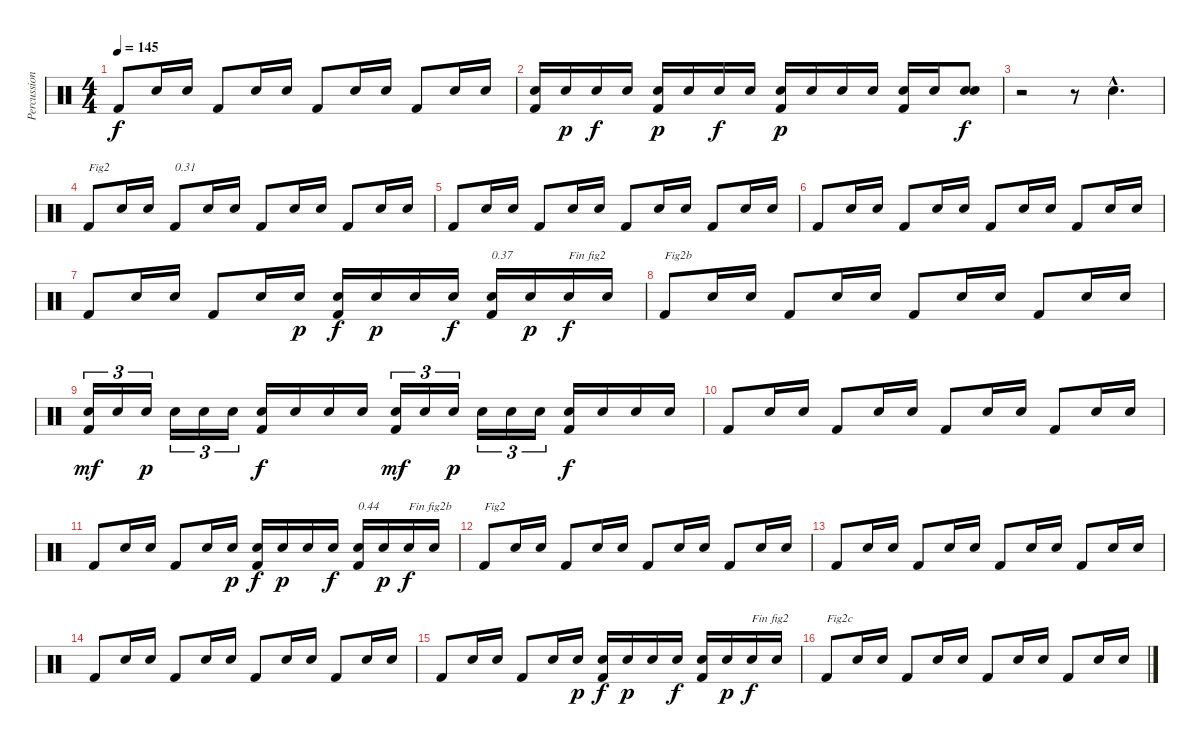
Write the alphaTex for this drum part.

\track ("Percussions" "Percussion") {instrument percussion}
\staff {score}
\articulation defaults
\ts (4 4)
\tempo 145
\clef neutral
\ks c "Kick (hit) 2".8{dy f} "Electric Snare (hit)".16 "Electric Snare (hit)".16 "Kick (hit) 2".8 "Electric Snare (hit)".16 "Electric Snare (hit)".16 "Kick (hit) 2".8 "Electric Snare (hit)".16 "Electric Snare (hit)".16 "Kick (hit) 2".8 "Electric Snare (hit)".16 "Electric Snare (hit)".16
|
("Kick (hit) 2" "Electric Snare (hit)").16 "Electric Snare (hit)".16{dy p} "Electric Snare (hit)".16{dy f} "Electric Snare (hit)".16 ("Kick (hit) 2" "Electric Snare (hit)").16{dy p} "Electric Snare (hit)".16 "Electric Snare (hit)".16{dy f} "Electric Snare (hit)".16 ("Kick (hit) 2" "Electric Snare (hit)").16{dy p} "Electric Snare (hit)".16 "Electric Snare (hit)".16 "Electric Snare (hit)".16 ("Kick (hit) 2" "Electric Snare (hit)").16 "Electric Snare (hit)".16 ("Electric Snare (hit)" "Electric Snare (hit)").8{dy f} |
r.2 r.8 "Electric Snare (hit)"{hac}.4{d} |
"Kick (hit) 2".8{txt "Fig2"} "Electric Snare (hit)".16 "Electric Snare (hit)".16 "Kick (hit) 2".8{txt "0.31"} "Electric Snare (hit)".16 "Electric Snare (hit)".16 "Kick (hit) 2".8 "Electric Snare (hit)".16 "Electric Snare (hit)".16 "Kick (hit) 2".8 "Electric Snare (hit)".16 "Electric Snare (hit)".16 |
"Kick (hit) 2".8 "Electric Snare (hit)".16 "Electric Snare (hit)".16 "Kick (hit) 2".8 "Electric Snare (hit)".16 "Electric Snare (hit)".16 "Kick (hit) 2".8 "Electric Snare (hit)".16 "Electric Snare (hit)".16 "Kick (hit) 2".8 "Electric Snare (hit)".16 "Electric Snare (hit)".16 |
"Kick (hit) 2".8 "Electric Snare (hit)".16 "Electric Snare (hit)".16 "Kick (hit) 2".8 "Electric Snare (hit)".16 "Electric Snare (hit)".16 "Kick (hit) 2".8 "Electric Snare (hit)".16 "Electric Snare (hit)".16 "Kick (hit) 2".8 "Electric Snare (hit)".16 "Electric Snare (hit)".16 |
"Kick (hit) 2".8 "Electric Snare (hit)".16 "Electric Snare (hit)".16 "Kick (hit) 2".8 "Electric Snare (hit)".16 "Electric Snare (hit)".16{dy p} ("Kick (hit) 2" "Electric Snare (hit)").16{dy f} "Electric Snare (hit)".16{dy p} "Electric Snare (hit)".16 "Electric Snare (hit)".16{dy f} ("Kick (hit) 2" "Electric Snare (hit)").16{txt "0.37"} "Electric Snare (hit)".16{dy p} "Electric Snare (hit)".16{txt "Fin fig2" dy f} "Electric Snare (hit)".16 |
"Kick (hit) 2".8{txt "Fig2b"} "Electric Snare (hit)".16 "Electric Snare (hit)".16 "Kick (hit) 2".8 "Electric Snare (hit)".16 "Electric Snare (hit)".16 "Kick (hit) 2".8 "Electric Snare (hit)".16 "Electric Snare (hit)".16 "Kick (hit) 2".8 "Electric Snare (hit)".16 "Electric Snare (hit)".16 |
("Kick (hit) 2" "Electric Snare (hit)").16{tu (3 2) dy mf} "Electric Snare (hit)".16{tu (3 2)} "Electric Snare (hit)".16{tu (3 2) dy p} "Electric Snare (hit)".16{tu (3 2)} "Electric Snare (hit)".16{tu (3 2)} "Electric Snare (hit)".16{tu (3 2)} ("Kick (hit) 2" "Electric Snare (hit)").16{dy f} "Electric Snare (hit)".16 "Electric Snare (hit)".16 "Electric Snare (hit)".16 ("Kick (hit) 2" "Electric Snare (hit)").16{tu (3 2) dy mf} "Electric Snare (hit)".16{tu (3 2)} "Electric Snare (hit)".16{tu (3 2) dy p} "Electric Snare (hit)".16{tu (3 2)} "Electric Snare (hit)".16{tu (3 2)} "Electric Snare (hit)".16{tu (3 2)} ("Kick (hit) 2" "Electric Snare (hit)").16{dy f} "Electric Snare (hit)".16 "Electric Snare (hit)".16 "Electric Snare (hit)".16 |
"Kick (hit) 2".8 "Electric Snare (hit)".16 "Electric Snare (hit)".16 "Kick (hit) 2".8 "Electric Snare (hit)".16 "Electric Snare (hit)".16 "Kick (hit) 2".8 "Electric Snare (hit)".16 "Electric Snare (hit)".16 "Kick (hit) 2".8 "Electric Snare (hit)".16 "Electric Snare (hit)".16 |
"Kick (hit) 2".8 "Electric Snare (hit)".16 "Electric Snare (hit)".16 "Kick (hit) 2".8 "Electric Snare (hit)".16 "Electric Snare (hit)".16{dy p} ("Kick (hit) 2" "Electric Snare (hit)").16{dy f} "Electric Snare (hit)".16{dy p} "Electric Snare (hit)".16 "Electric Snare (hit)".16{dy f} ("Kick (hit) 2" "Electric Snare (hit)").16{txt "0.44"} "Electric Snare (hit)".16{dy p} "Electric Snare (hit)".16{txt "Fin fig2b" dy f} "Electric Snare (hit)".16 |
"Kick (hit) 2".8{txt "Fig2"} "Electric Snare (hit)".16 "Electric Snare (hit)".16 "Kick (hit) 2".8 "Electric Snare (hit)".16 "Electric Snare (hit)".16 "Kick (hit) 2".8 "Electric Snare (hit)".16 "Electric Snare (hit)".16 "Kick (hit) 2".8 "Electric Snare (hit)".16 "Electric Snare (hit)".16 |
"Kick (hit) 2".8 "Electric Snare (hit)".16 "Electric Snare (hit)".16 "Kick (hit) 2".8 "Electric Snare (hit)".16 "Electric Snare (hit)".16 "Kick (hit) 2".8 "Electric Snare (hit)".16 "Electric Snare (hit)".16 "Kick (hit) 2".8 "Electric Snare (hit)".16 "Electric Snare (hit)".16 |
"Kick (hit) 2".8 "Electric Snare (hit)".16 "Electric Snare (hit)".16 "Kick (hit) 2".8 "Electric Snare (hit)".16 "Electric Snare (hit)".16 "Kick (hit) 2".8 "Electric Snare (hit)".16 "Electric Snare (hit)".16 "Kick (hit) 2".8 "Electric Snare (hit)".16 "Electric Snare (hit)".16 |
"Kick (hit) 2".8 "Electric Snare (hit)".16 "Electric Snare (hit)".16 "Kick (hit) 2".8 "Electric Snare (hit)".16 "Electric Snare (hit)".16{dy p} ("Kick (hit) 2" "Electric Snare (hit)").16{dy f} "Electric Snare (hit)".16{dy p} "Electric Snare (hit)".16 "Electric Snare (hit)".16{dy f} ("Kick (hit) 2" "Electric Snare (hit)").16 "Electric Snare (hit)".16{dy p} "Electric Snare (hit)".16{txt "Fin fig2" dy f} "Electric Snare (hit)".16 |
"Kick (hit) 2".8{txt "Fig2c"} "Electric Snare (hit)".16 "Electric Snare (hit)".16 "Kick (hit) 2".8 "Electric Snare (hit)".16 "Electric Snare (hit)".16 "Kick (hit) 2".8 "Electric Snare (hit)".16 "Electric Snare (hit)".16 "Kick (hit) 2".8 "Electric Snare (hit)".16 "Electric Snare (hit)".16
